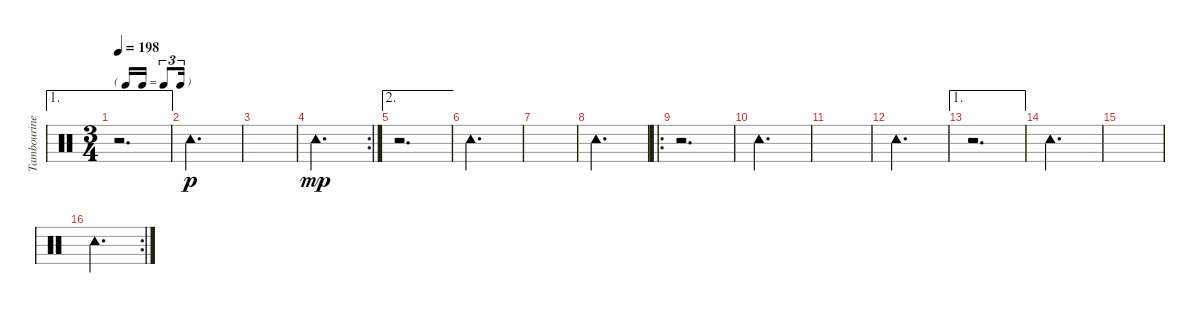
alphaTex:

\track ("Tambourine" "Tambourine") {instrument percussion}
\staff {score}
\articulation defaults
\ae 1
\ts (3 4)
\tf triplet16th
\tempo 198
\clef neutral
\ks c
r.2{d dy p} |
"Tambourine (hit)".2{d} |
|
\rc 2 "Tambourine (hit)".2{d dy mp}
|
\ae 2
r.2{d} |
"Tambourine (hit)".2{d} |
|
"Tambourine (hit)".2{d} |
\ro
r.2{d} |
"Tambourine (hit)".2{d} |
|
"Tambourine (hit)".2{d} |
\ae 1
r.2{d} |
"Tambourine (hit)".2{d} |
|
\rc 2 "Tambourine (hit)".2{d}
